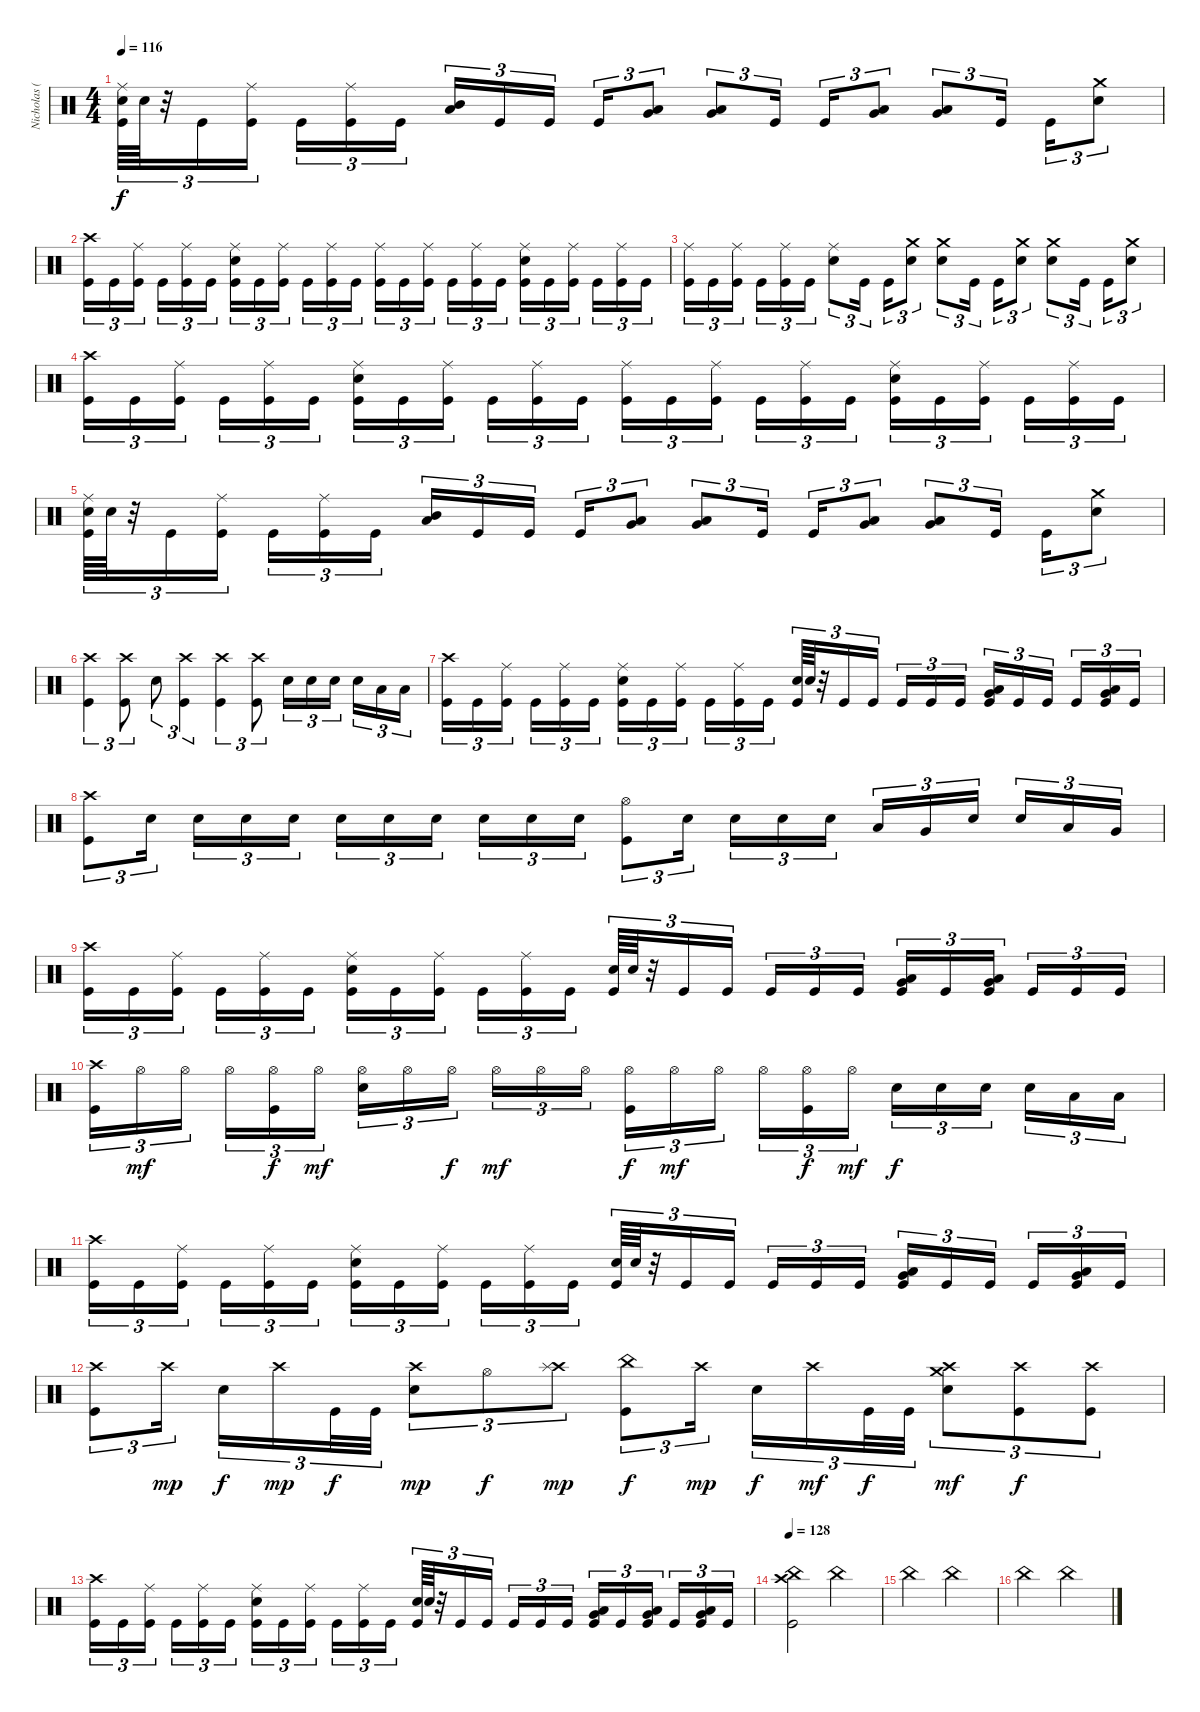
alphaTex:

\track ("Nicholas (Drums)" "Nicholas (") {instrument percussion}
\staff {score}
\articulation defaults
\ts (4 4)
\tempo 116
\clef neutral
\ks c
("Ride (middle)" "Electric Snare (hit)" "Kick (hit)").64{tu (3 2) dy f} "Electric Snare (hit)".64{tu (3 2)} r.32{tu (3 2)} "Kick (hit)".16{tu (3 2)} ("Ride (middle)" "Kick (hit)").16{tu (3 2)} "Kick (hit)".16{tu (3 2)} ("Ride (middle)" "Kick (hit)").16{tu (3 2)} "Kick (hit)".16{tu (3 2)} ("Mid Tom (hit)" "Low Tom (hit)").16{tu (3 2) bd 60} "Kick (hit)".16{tu (3 2)} "Kick (hit)".16{tu (3 2)} "Kick (hit)".16{tu (3 2)} ("Low Tom (hit)" "Very Low Tom (hit)").8{tu (3 2) bu 60} ("Low Tom (hit)" "Very Low Tom (hit)").8{tu (3 2) bu 60} "Kick (hit)".16{tu (3 2)} "Kick (hit)".16{tu (3 2)} ("Low Tom (hit)" "Very Low Tom (hit)").8{tu (3 2) bu 60} ("Low Tom (hit)" "Very Low Tom (hit)").8{tu (3 2) bu 60} "Kick (hit)".16{tu (3 2)} "Kick (hit)".16{tu (3 2)} ("Crash medium (hit)" "Electric Snare (hit)").8{tu (3 2)} |
("Crash high (hit)" "Kick (hit)").16{tu (3 2)} "Kick (hit)".16{tu (3 2)} ("Ride (middle)" "Kick (hit)").16{tu (3 2)} "Kick (hit)".16{tu (3 2)} ("Ride (middle)" "Kick (hit)").16{tu (3 2)} "Kick (hit)".16{tu (3 2)} ("Ride (middle)" "Electric Snare (hit)" "Kick (hit)").16{tu (3 2)} "Kick (hit)".16{tu (3 2)} ("Ride (middle)" "Kick (hit)").16{tu (3 2)} "Kick (hit)".16{tu (3 2)} ("Ride (middle)" "Kick (hit)").16{tu (3 2)} "Kick (hit)".16{tu (3 2)} ("Ride (middle)" "Kick (hit)").16{tu (3 2)} "Kick (hit)".16{tu (3 2)} ("Ride (middle)" "Kick (hit)").16{tu (3 2)} "Kick (hit)".16{tu (3 2)} ("Ride (middle)" "Kick (hit)").16{tu (3 2)} "Kick (hit)".16{tu (3 2)} ("Ride (middle)" "Electric Snare (hit)" "Kick (hit)").16{tu (3 2)} "Kick (hit)".16{tu (3 2)} ("Ride (middle)" "Kick (hit)").16{tu (3 2)} "Kick (hit)".16{tu (3 2)} ("Ride (middle)" "Kick (hit)").16{tu (3 2)} "Kick (hit)".16{tu (3 2)} |
("Ride (middle)" "Kick (hit)").16{tu (3 2)} "Kick (hit)".16{tu (3 2)} ("Ride (middle)" "Kick (hit)").16{tu (3 2)} "Kick (hit)".16{tu (3 2)} ("Ride (middle)" "Kick (hit)").16{tu (3 2)} "Kick (hit)".16{tu (3 2)} ("Ride (middle)" "Electric Snare (hit)").8{tu (3 2)} "Kick (hit)".16{tu (3 2)} "Kick (hit)".16{tu (3 2)} ("Crash medium (hit)" "Electric Snare (hit)").8{tu (3 2)} ("Crash medium (hit)" "Electric Snare (hit)").8{tu (3 2)} "Kick (hit)".16{tu (3 2)} "Kick (hit)".16{tu (3 2)} ("Crash medium (hit)" "Electric Snare (hit)").8{tu (3 2)} ("Crash medium (hit)" "Electric Snare (hit)").8{tu (3 2)} "Kick (hit)".16{tu (3 2)} "Kick (hit)".16{tu (3 2)} ("Crash medium (hit)" "Electric Snare (hit)").8{tu (3 2)} |
("Crash high (hit)" "Kick (hit)").16{tu (3 2)} "Kick (hit)".16{tu (3 2)} ("Ride (middle)" "Kick (hit)").16{tu (3 2)} "Kick (hit)".16{tu (3 2)} ("Ride (middle)" "Kick (hit)").16{tu (3 2)} "Kick (hit)".16{tu (3 2)} ("Ride (middle)" "Electric Snare (hit)" "Kick (hit)").16{tu (3 2)} "Kick (hit)".16{tu (3 2)} ("Ride (middle)" "Kick (hit)").16{tu (3 2)} "Kick (hit)".16{tu (3 2)} ("Ride (middle)" "Kick (hit)").16{tu (3 2)} "Kick (hit)".16{tu (3 2)} ("Ride (middle)" "Kick (hit)").16{tu (3 2)} "Kick (hit)".16{tu (3 2)} ("Ride (middle)" "Kick (hit)").16{tu (3 2)} "Kick (hit)".16{tu (3 2)} ("Ride (middle)" "Kick (hit)").16{tu (3 2)} "Kick (hit)".16{tu (3 2)} ("Ride (middle)" "Electric Snare (hit)" "Kick (hit)").16{tu (3 2)} "Kick (hit)".16{tu (3 2)} ("Ride (middle)" "Kick (hit)").16{tu (3 2)} "Kick (hit)".16{tu (3 2)} ("Ride (middle)" "Kick (hit)").16{tu (3 2)} "Kick (hit)".16{tu (3 2)} |
("Ride (middle)" "Electric Snare (hit)" "Kick (hit)").64{tu (3 2)} "Electric Snare (hit)".64{tu (3 2)} r.32{tu (3 2)} "Kick (hit)".16{tu (3 2)} ("Ride (middle)" "Kick (hit)").16{tu (3 2)} "Kick (hit)".16{tu (3 2)} ("Ride (middle)" "Kick (hit)").16{tu (3 2)} "Kick (hit)".16{tu (3 2)} ("Mid Tom (hit)" "Low Tom (hit)").16{tu (3 2) bd 60} "Kick (hit)".16{tu (3 2)} "Kick (hit)".16{tu (3 2)} "Kick (hit)".16{tu (3 2)} ("Low Tom (hit)" "Very Low Tom (hit)").8{tu (3 2) bu 60} ("Low Tom (hit)" "Very Low Tom (hit)").8{tu (3 2) bu 60} "Kick (hit)".16{tu (3 2)} "Kick (hit)".16{tu (3 2)} ("Low Tom (hit)" "Very Low Tom (hit)").8{tu (3 2) bu 60} ("Low Tom (hit)" "Very Low Tom (hit)").8{tu (3 2) bu 60} "Kick (hit)".16{tu (3 2)} "Kick (hit)".16{tu (3 2)} ("Crash medium (hit)" "Electric Snare (hit)").8{tu (3 2)} |
("Crash high (hit)" "Kick (hit)").4{tu (3 2)} ("Crash high (hit)" "Kick (hit)").8{tu (3 2)} "Electric Snare (hit)".8{tu (3 2)} ("Crash high (hit)" "Kick (hit)").4{tu (3 2)} ("Crash high (hit)" "Kick (hit)").4{tu (3 2)} ("Crash high (hit)" "Kick (hit)").8{tu (3 2)} "Electric Snare (hit)".16{tu (3 2)} "Electric Snare (hit)".16{tu (3 2)} "Electric Snare (hit)".16{tu (3 2)} "Electric Snare (hit)".16{tu (3 2)} "Low Tom (hit)".16{tu (3 2)} "Low Tom (hit)".16{tu (3 2)} |
("Crash high (hit)" "Kick (hit)").16{tu (3 2)} "Kick (hit)".16{tu (3 2)} ("Ride (middle)" "Kick (hit)").16{tu (3 2)} "Kick (hit)".16{tu (3 2)} ("Ride (middle)" "Kick (hit)").16{tu (3 2)} "Kick (hit)".16{tu (3 2)} ("Ride (middle)" "Electric Snare (hit)" "Kick (hit)").16{tu (3 2)} "Kick (hit)".16{tu (3 2)} ("Ride (middle)" "Kick (hit)").16{tu (3 2)} "Kick (hit)".16{tu (3 2)} ("Ride (middle)" "Kick (hit)").16{tu (3 2)} "Kick (hit)".16{tu (3 2)} ("Electric Snare (hit)" "Kick (hit)").64{tu (3 2)} "Electric Snare (hit)".64{tu (3 2)} r.32{tu (3 2)} "Kick (hit)".16{tu (3 2)} "Kick (hit)".16{tu (3 2)} "Kick (hit)".16{tu (3 2)} "Kick (hit)".16{tu (3 2)} "Kick (hit)".16{tu (3 2)} ("Low Tom (hit)" "Very Low Tom (hit)" "Kick (hit)").16{tu (3 2) bd 60} "Kick (hit)".16{tu (3 2)} "Kick (hit)".16{tu (3 2)} "Kick (hit)".16{tu (3 2)} ("Low Tom (hit)" "Very Low Tom (hit)" "Kick (hit)").16{tu (3 2) bd 60} "Kick (hit)".16{tu (3 2)} |
("Crash high (hit)" "Kick (hit)").8{tu (3 2)} "Electric Snare (hit)".16{tu (3 2)} "Electric Snare (hit)".16{tu (3 2)} "Electric Snare (hit)".16{tu (3 2)} "Electric Snare (hit)".16{tu (3 2)} "Electric Snare (hit)".16{tu (3 2)} "Electric Snare (hit)".16{tu (3 2)} "Electric Snare (hit)".16{tu (3 2)} "Electric Snare (hit)".16{tu (3 2)} "Electric Snare (hit)".16{tu (3 2)} "Electric Snare (hit)".16{tu (3 2)} ("Hi-Hat (open)" "Kick (hit)").8{tu (3 2)} "Electric Snare (hit)".16{tu (3 2)} "Electric Snare (hit)".16{tu (3 2)} "Electric Snare (hit)".16{tu (3 2)} "Electric Snare (hit)".16{tu (3 2)} "Low Tom (hit)".16{tu (3 2)} "Very Low Tom (hit)".16{tu (3 2)} "Electric Snare (hit)".16{tu (3 2)} "Electric Snare (hit)".16{tu (3 2)} "Low Tom (hit)".16{tu (3 2)} "Very Low Tom (hit)".16{tu (3 2)} |
("Crash high (hit)" "Kick (hit)").16{tu (3 2)} "Kick (hit)".16{tu (3 2)} ("Ride (middle)" "Kick (hit)").16{tu (3 2)} "Kick (hit)".16{tu (3 2)} ("Ride (middle)" "Kick (hit)").16{tu (3 2)} "Kick (hit)".16{tu (3 2)} ("Ride (middle)" "Electric Snare (hit)" "Kick (hit)").16{tu (3 2)} "Kick (hit)".16{tu (3 2)} ("Ride (middle)" "Kick (hit)").16{tu (3 2)} "Kick (hit)".16{tu (3 2)} ("Ride (middle)" "Kick (hit)").16{tu (3 2)} "Kick (hit)".16{tu (3 2)} ("Electric Snare (hit)" "Kick (hit)").64{tu (3 2)} "Electric Snare (hit)".64{tu (3 2)} r.32{tu (3 2)} "Kick (hit)".16{tu (3 2)} "Kick (hit)".16{tu (3 2)} "Kick (hit)".16{tu (3 2)} "Kick (hit)".16{tu (3 2)} "Kick (hit)".16{tu (3 2)} ("Low Tom (hit)" "Very Low Tom (hit)" "Kick (hit)").16{tu (3 2) bd 60} "Kick (hit)".16{tu (3 2)} ("Low Tom (hit)" "Very Low Tom (hit)" "Kick (hit)").16{tu (3 2) bd 60} "Kick (hit)".16{tu (3 2)} "Kick (hit)".16{tu (3 2)} "Kick (hit)".16{tu (3 2)} |
("Crash high (hit)" "Kick (hit)").16{tu (3 2)} "Hi-Hat (open)".16{tu (3 2) dy mf} "Hi-Hat (open)".16{tu (3 2)} "Hi-Hat (open)".16{tu (3 2)} ("Hi-Hat (open)" "Kick (hit)").16{tu (3 2) dy f} "Hi-Hat (open)".16{tu (3 2) dy mf} ("Hi-Hat (open)" "Electric Snare (hit)").16{tu (3 2)} "Hi-Hat (open)".16{tu (3 2)} "Hi-Hat (open)".16{tu (3 2) dy f} "Hi-Hat (open)".16{tu (3 2) dy mf} "Hi-Hat (open)".16{tu (3 2)} "Hi-Hat (open)".16{tu (3 2)} ("Hi-Hat (open)" "Kick (hit)").16{tu (3 2) dy f} "Hi-Hat (open)".16{tu (3 2) dy mf} "Hi-Hat (open)".16{tu (3 2)} "Hi-Hat (open)".16{tu (3 2)} ("Hi-Hat (open)" "Kick (hit)").16{tu (3 2) dy f} "Hi-Hat (open)".16{tu (3 2) dy mf} "Electric Snare (hit)".16{tu (3 2) dy f} "Electric Snare (hit)".16{tu (3 2)} "Electric Snare (hit)".16{tu (3 2)} "Electric Snare (hit)".16{tu (3 2)} "Low Tom (hit)".16{tu (3 2)} "Low Tom (hit)".16{tu (3 2)} |
("Crash high (hit)" "Kick (hit)").16{tu (3 2)} "Kick (hit)".16{tu (3 2)} ("Ride (middle)" "Kick (hit)").16{tu (3 2)} "Kick (hit)".16{tu (3 2)} ("Ride (middle)" "Kick (hit)").16{tu (3 2)} "Kick (hit)".16{tu (3 2)} ("Ride (middle)" "Electric Snare (hit)" "Kick (hit)").16{tu (3 2)} "Kick (hit)".16{tu (3 2)} ("Ride (middle)" "Kick (hit)").16{tu (3 2)} "Kick (hit)".16{tu (3 2)} ("Ride (middle)" "Kick (hit)").16{tu (3 2)} "Kick (hit)".16{tu (3 2)} ("Electric Snare (hit)" "Kick (hit)").64{tu (3 2)} "Electric Snare (hit)".64{tu (3 2)} r.32{tu (3 2)} "Kick (hit)".16{tu (3 2)} "Kick (hit)".16{tu (3 2)} "Kick (hit)".16{tu (3 2)} "Kick (hit)".16{tu (3 2)} "Kick (hit)".16{tu (3 2)} ("Low Tom (hit)" "Very Low Tom (hit)" "Kick (hit)").16{tu (3 2) bd 60} "Kick (hit)".16{tu (3 2)} "Kick (hit)".16{tu (3 2)} "Kick (hit)".16{tu (3 2)} ("Low Tom (hit)" "Very Low Tom (hit)" "Kick (hit)").16{tu (3 2) bd 60} "Kick (hit)".16{tu (3 2)} |
("Crash high (hit)" "Kick (hit)").8{tu (3 2)} "Crash high (hit)".16{tu (3 2) dy mp} "Electric Snare (hit)".16{tu (3 2) dy f} "Crash high (hit)".16{tu (3 2) dy mp} "Kick (hit)".32{tu (3 2) dy f} "Kick (hit)".32{tu (3 2)} ("Crash high (hit)" "Electric Snare (hit)").8{tu (3 2) dy mp} "Hi-Hat (open)".8{tu (3 2) dy f} ("Crash high (hit)" "Splash (hit)").8{tu (3 2) dy mp} ("China (hit)" "Kick (hit)").8{tu (3 2) dy f} "Crash high (hit)".16{tu (3 2) dy mp} "Electric Snare (hit)".16{tu (3 2) dy f} "Crash high (hit)".16{tu (3 2) dy mf} "Kick (hit)".32{tu (3 2) dy f} "Kick (hit)".32{tu (3 2)} ("Crash high (hit)" "Crash medium (hit)" "Electric Snare (hit)").8{tu (3 2) dy mf} ("Crash high (hit)" "Kick (hit)").8{tu (3 2) dy f} ("Crash high (hit)" "Kick (hit)").8{tu (3 2)} |
("Crash high (hit)" "Kick (hit)").16{tu (3 2)} "Kick (hit)".16{tu (3 2)} ("Ride (middle)" "Kick (hit)").16{tu (3 2)} "Kick (hit)".16{tu (3 2)} ("Ride (middle)" "Kick (hit)").16{tu (3 2)} "Kick (hit)".16{tu (3 2)} ("Ride (middle)" "Electric Snare (hit)" "Kick (hit)").16{tu (3 2)} "Kick (hit)".16{tu (3 2)} ("Ride (middle)" "Kick (hit)").16{tu (3 2)} "Kick (hit)".16{tu (3 2)} ("Ride (middle)" "Kick (hit)").16{tu (3 2)} "Kick (hit)".16{tu (3 2)} ("Electric Snare (hit)" "Kick (hit)").64{tu (3 2)} "Electric Snare (hit)".64{tu (3 2)} r.32{tu (3 2)} "Kick (hit)".16{tu (3 2)} "Kick (hit)".16{tu (3 2)} "Kick (hit)".16{tu (3 2)} "Kick (hit)".16{tu (3 2)} "Kick (hit)".16{tu (3 2)} ("Low Tom (hit)" "Very Low Tom (hit)" "Kick (hit)").16{tu (3 2) bd 60} "Kick (hit)".16{tu (3 2)} ("Low Tom (hit)" "Very Low Tom (hit)" "Kick (hit)").16{tu (3 2) bd 60} "Kick (hit)".16{tu (3 2)} ("Low Tom (hit)" "Very Low Tom (hit)" "Kick (hit)").16{tu (3 2) bd 60} "Kick (hit)".16{tu (3 2)} |
\tempo 128
("Crash high (hit)" "China (hit)" "Kick (hit)").2 "China (hit)".2 |
"China (hit)".2 "China (hit)".2 |
"China (hit)".2 "China (hit)".2
